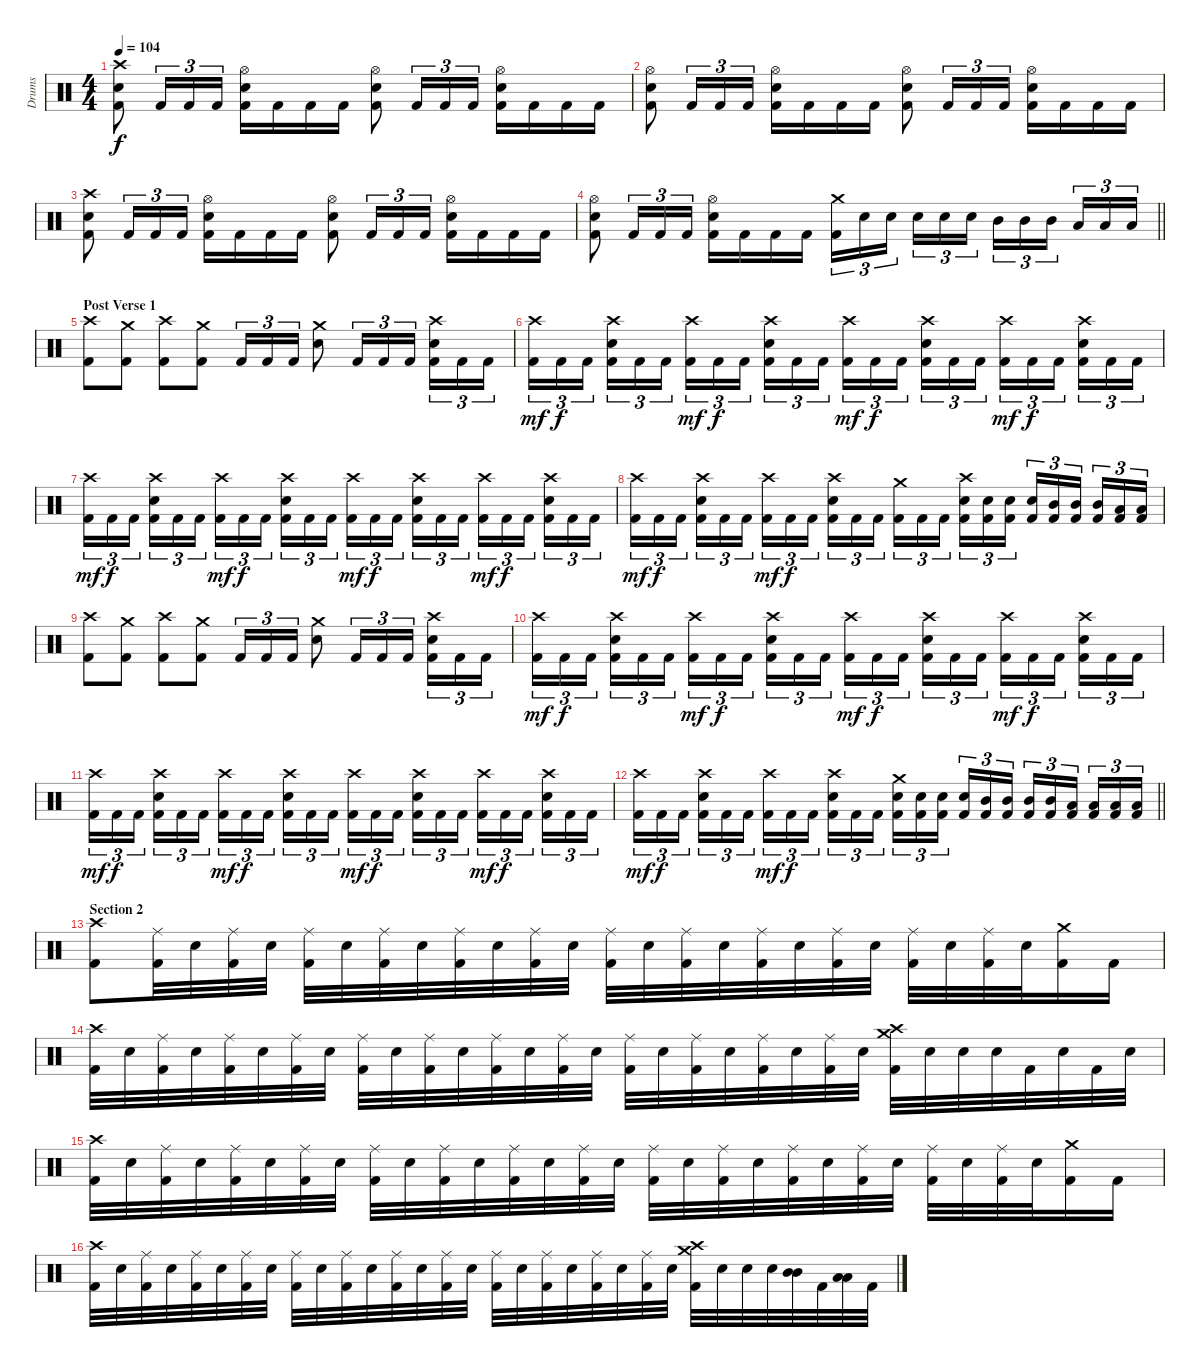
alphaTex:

\track ("Drums" "Drums") {instrument percussion}
\staff {score}
\articulation defaults
\ts (4 4)
\tempo 104
\clef neutral
\ks c
("Crash high (hit)" "Electric Snare (hit)" "Kick (hit) 2").8{dy f} "Kick (hit) 2".16{tu (3 2)} "Kick (hit) 2".16{tu (3 2)} "Kick (hit) 2".16{tu (3 2)} ("Hi-Hat (open)" "Electric Snare (hit)" "Kick (hit) 2").16 "Kick (hit) 2".16 "Kick (hit) 2".16 "Kick (hit) 2".16 ("Hi-Hat (open)" "Electric Snare (hit)" "Kick (hit) 2").8 "Kick (hit) 2".16{tu (3 2)} "Kick (hit) 2".16{tu (3 2)} "Kick (hit) 2".16{tu (3 2)} ("Hi-Hat (open)" "Electric Snare (hit)" "Kick (hit) 2").16 "Kick (hit) 2".16 "Kick (hit) 2".16 "Kick (hit) 2".16 |
("Hi-Hat (open)" "Electric Snare (hit)" "Kick (hit) 2").8 "Kick (hit) 2".16{tu (3 2)} "Kick (hit) 2".16{tu (3 2)} "Kick (hit) 2".16{tu (3 2)} ("Hi-Hat (open)" "Electric Snare (hit)" "Kick (hit) 2").16 "Kick (hit) 2".16 "Kick (hit) 2".16 "Kick (hit) 2".16 ("Hi-Hat (open)" "Electric Snare (hit)" "Kick (hit) 2").8 "Kick (hit) 2".16{tu (3 2)} "Kick (hit) 2".16{tu (3 2)} "Kick (hit) 2".16{tu (3 2)} ("Hi-Hat (open)" "Electric Snare (hit)" "Kick (hit) 2").16 "Kick (hit) 2".16 "Kick (hit) 2".16 "Kick (hit) 2".16 |
("Crash high (hit)" "Electric Snare (hit)" "Kick (hit) 2").8 "Kick (hit) 2".16{tu (3 2)} "Kick (hit) 2".16{tu (3 2)} "Kick (hit) 2".16{tu (3 2)} ("Hi-Hat (open)" "Electric Snare (hit)" "Kick (hit) 2").16 "Kick (hit) 2".16 "Kick (hit) 2".16 "Kick (hit) 2".16 ("Hi-Hat (open)" "Electric Snare (hit)" "Kick (hit) 2").8 "Kick (hit) 2".16{tu (3 2)} "Kick (hit) 2".16{tu (3 2)} "Kick (hit) 2".16{tu (3 2)} ("Hi-Hat (open)" "Electric Snare (hit)" "Kick (hit) 2").16 "Kick (hit) 2".16 "Kick (hit) 2".16 "Kick (hit) 2".16 |
\barLineRight lightlight
("Hi-Hat (open)" "Electric Snare (hit)" "Kick (hit) 2").8 "Kick (hit) 2".16{tu (3 2)} "Kick (hit) 2".16{tu (3 2)} "Kick (hit) 2".16{tu (3 2)} ("Hi-Hat (open)" "Electric Snare (hit)" "Kick (hit) 2").16 "Kick (hit) 2".16 "Kick (hit) 2".16 "Kick (hit) 2".16 ("Crash medium (hit)" "Kick (hit) 2").16{tu (3 2)} "Electric Snare (hit)".16{tu (3 2)} "Electric Snare (hit)".16{tu (3 2) beam splitsecondary} "Electric Snare (hit)".16{tu (3 2)} "Electric Snare (hit)".16{tu (3 2)} "Electric Snare (hit)".16{tu (3 2)} "Mid Tom (hit)".16{tu (3 2)} "Mid Tom (hit)".16{tu (3 2)} "Mid Tom (hit)".16{tu (3 2) beam splitsecondary} "Low Tom (hit)".16{tu (3 2)} "Low Tom (hit)".16{tu (3 2)} "Low Tom (hit)".16{tu (3 2)} |
\section ("" "Post Verse 1")
("Crash high (hit)" "Kick (hit) 2").8 ("Crash medium (hit)" "Kick (hit) 2").8 ("Crash high (hit)" "Kick (hit) 2").8 ("Crash medium (hit)" "Kick (hit) 2").8 "Kick (hit) 2".16{tu (3 2)} "Kick (hit) 2".16{tu (3 2)} "Kick (hit) 2".16{tu (3 2)} ("Crash medium (hit)" "Electric Snare (hit)").8 "Kick (hit) 2".16{tu (3 2)} "Kick (hit) 2".16{tu (3 2)} "Kick (hit) 2".16{tu (3 2) beam splitsecondary} ("Crash high (hit)" "Electric Snare (hit)" "Kick (hit) 2").16{tu (3 2)} "Kick (hit) 2".16{tu (3 2)} "Kick (hit) 2".16{tu (3 2)} |
("Crash high (hit)" "Kick (hit) 2").16{tu (3 2) dy mf} "Kick (hit) 2".16{tu (3 2) dy f} "Kick (hit) 2".16{tu (3 2) beam splitsecondary} ("Crash high (hit)" "Electric Snare (hit)" "Kick (hit) 2").16{tu (3 2)} "Kick (hit) 2".16{tu (3 2)} "Kick (hit) 2".16{tu (3 2)} ("Crash high (hit)" "Kick (hit) 2").16{tu (3 2) dy mf} "Kick (hit) 2".16{tu (3 2) dy f} "Kick (hit) 2".16{tu (3 2) beam splitsecondary} ("Crash high (hit)" "Electric Snare (hit)" "Kick (hit) 2").16{tu (3 2)} "Kick (hit) 2".16{tu (3 2)} "Kick (hit) 2".16{tu (3 2)} ("Crash high (hit)" "Kick (hit) 2").16{tu (3 2) dy mf} "Kick (hit) 2".16{tu (3 2) dy f} "Kick (hit) 2".16{tu (3 2) beam splitsecondary} ("Crash high (hit)" "Electric Snare (hit)" "Kick (hit) 2").16{tu (3 2)} "Kick (hit) 2".16{tu (3 2)} "Kick (hit) 2".16{tu (3 2)} ("Crash high (hit)" "Kick (hit) 2").16{tu (3 2) dy mf} "Kick (hit) 2".16{tu (3 2) dy f} "Kick (hit) 2".16{tu (3 2) beam splitsecondary} ("Crash high (hit)" "Electric Snare (hit)" "Kick (hit) 2").16{tu (3 2)} "Kick (hit) 2".16{tu (3 2)} "Kick (hit) 2".16{tu (3 2)} |
("Crash high (hit)" "Kick (hit) 2").16{tu (3 2) dy mf} "Kick (hit) 2".16{tu (3 2) dy f} "Kick (hit) 2".16{tu (3 2) beam splitsecondary} ("Crash high (hit)" "Electric Snare (hit)" "Kick (hit) 2").16{tu (3 2)} "Kick (hit) 2".16{tu (3 2)} "Kick (hit) 2".16{tu (3 2)} ("Crash high (hit)" "Kick (hit) 2").16{tu (3 2) dy mf} "Kick (hit) 2".16{tu (3 2) dy f} "Kick (hit) 2".16{tu (3 2) beam splitsecondary} ("Crash high (hit)" "Electric Snare (hit)" "Kick (hit) 2").16{tu (3 2)} "Kick (hit) 2".16{tu (3 2)} "Kick (hit) 2".16{tu (3 2)} ("Crash high (hit)" "Kick (hit) 2").16{tu (3 2) dy mf} "Kick (hit) 2".16{tu (3 2) dy f} "Kick (hit) 2".16{tu (3 2) beam splitsecondary} ("Crash high (hit)" "Electric Snare (hit)" "Kick (hit) 2").16{tu (3 2)} "Kick (hit) 2".16{tu (3 2)} "Kick (hit) 2".16{tu (3 2)} ("Crash high (hit)" "Kick (hit) 2").16{tu (3 2) dy mf} "Kick (hit) 2".16{tu (3 2) dy f} "Kick (hit) 2".16{tu (3 2) beam splitsecondary} ("Crash high (hit)" "Electric Snare (hit)" "Kick (hit) 2").16{tu (3 2)} "Kick (hit) 2".16{tu (3 2)} "Kick (hit) 2".16{tu (3 2)} |
("Crash high (hit)" "Kick (hit) 2").16{tu (3 2) dy mf} "Kick (hit) 2".16{tu (3 2) dy f} "Kick (hit) 2".16{tu (3 2) beam splitsecondary} ("Crash high (hit)" "Electric Snare (hit)" "Kick (hit) 2").16{tu (3 2)} "Kick (hit) 2".16{tu (3 2)} "Kick (hit) 2".16{tu (3 2)} ("Crash high (hit)" "Kick (hit) 2").16{tu (3 2) dy mf} "Kick (hit) 2".16{tu (3 2) dy f} "Kick (hit) 2".16{tu (3 2) beam splitsecondary} ("Crash high (hit)" "Electric Snare (hit)" "Kick (hit) 2").16{tu (3 2)} "Kick (hit) 2".16{tu (3 2)} "Kick (hit) 2".16{tu (3 2)} ("Crash medium (hit)" "Kick (hit) 2").16{tu (3 2)} "Kick (hit) 2".16{tu (3 2)} "Kick (hit) 2".16{tu (3 2) beam splitsecondary} ("Crash high (hit)" "Electric Snare (hit)" "Kick (hit) 2").16{tu (3 2)} ("Electric Snare (hit)" "Kick (hit) 2").16{tu (3 2)} ("Electric Snare (hit)" "Kick (hit) 2").16{tu (3 2)} ("Electric Snare (hit)" "Kick (hit) 2").16{tu (3 2)} ("Mid Tom (hit)" "Kick (hit) 2").16{tu (3 2)} ("Mid Tom (hit)" "Kick (hit) 2").16{tu (3 2) beam splitsecondary} ("Mid Tom (hit)" "Kick (hit) 2").16{tu (3 2)} ("Low Tom (hit)" "Kick (hit) 2").16{tu (3 2)} ("Low Tom (hit)" "Kick (hit) 2").16{tu (3 2)} |
("Crash high (hit)" "Kick (hit) 2").8 ("Crash medium (hit)" "Kick (hit) 2").8 ("Crash high (hit)" "Kick (hit) 2").8 ("Crash medium (hit)" "Kick (hit) 2").8 "Kick (hit) 2".16{tu (3 2)} "Kick (hit) 2".16{tu (3 2)} "Kick (hit) 2".16{tu (3 2)} ("Crash medium (hit)" "Electric Snare (hit)").8 "Kick (hit) 2".16{tu (3 2)} "Kick (hit) 2".16{tu (3 2)} "Kick (hit) 2".16{tu (3 2) beam splitsecondary} ("Crash high (hit)" "Electric Snare (hit)" "Kick (hit) 2").16{tu (3 2)} "Kick (hit) 2".16{tu (3 2)} "Kick (hit) 2".16{tu (3 2)} |
("Crash high (hit)" "Kick (hit) 2").16{tu (3 2) dy mf} "Kick (hit) 2".16{tu (3 2) dy f} "Kick (hit) 2".16{tu (3 2) beam splitsecondary} ("Crash high (hit)" "Electric Snare (hit)" "Kick (hit) 2").16{tu (3 2)} "Kick (hit) 2".16{tu (3 2)} "Kick (hit) 2".16{tu (3 2)} ("Crash high (hit)" "Kick (hit) 2").16{tu (3 2) dy mf} "Kick (hit) 2".16{tu (3 2) dy f} "Kick (hit) 2".16{tu (3 2) beam splitsecondary} ("Crash high (hit)" "Electric Snare (hit)" "Kick (hit) 2").16{tu (3 2)} "Kick (hit) 2".16{tu (3 2)} "Kick (hit) 2".16{tu (3 2)} ("Crash high (hit)" "Kick (hit) 2").16{tu (3 2) dy mf} "Kick (hit) 2".16{tu (3 2) dy f} "Kick (hit) 2".16{tu (3 2) beam splitsecondary} ("Crash high (hit)" "Electric Snare (hit)" "Kick (hit) 2").16{tu (3 2)} "Kick (hit) 2".16{tu (3 2)} "Kick (hit) 2".16{tu (3 2)} ("Crash high (hit)" "Kick (hit) 2").16{tu (3 2) dy mf} "Kick (hit) 2".16{tu (3 2) dy f} "Kick (hit) 2".16{tu (3 2) beam splitsecondary} ("Crash high (hit)" "Electric Snare (hit)" "Kick (hit) 2").16{tu (3 2)} "Kick (hit) 2".16{tu (3 2)} "Kick (hit) 2".16{tu (3 2)} |
("Crash high (hit)" "Kick (hit) 2").16{tu (3 2) dy mf} "Kick (hit) 2".16{tu (3 2) dy f} "Kick (hit) 2".16{tu (3 2) beam splitsecondary} ("Crash high (hit)" "Electric Snare (hit)" "Kick (hit) 2").16{tu (3 2)} "Kick (hit) 2".16{tu (3 2)} "Kick (hit) 2".16{tu (3 2)} ("Crash high (hit)" "Kick (hit) 2").16{tu (3 2) dy mf} "Kick (hit) 2".16{tu (3 2) dy f} "Kick (hit) 2".16{tu (3 2) beam splitsecondary} ("Crash high (hit)" "Electric Snare (hit)" "Kick (hit) 2").16{tu (3 2)} "Kick (hit) 2".16{tu (3 2)} "Kick (hit) 2".16{tu (3 2)} ("Crash high (hit)" "Kick (hit) 2").16{tu (3 2) dy mf} "Kick (hit) 2".16{tu (3 2) dy f} "Kick (hit) 2".16{tu (3 2) beam splitsecondary} ("Crash high (hit)" "Electric Snare (hit)" "Kick (hit) 2").16{tu (3 2)} "Kick (hit) 2".16{tu (3 2)} "Kick (hit) 2".16{tu (3 2)} ("Crash high (hit)" "Kick (hit) 2").16{tu (3 2) dy mf} "Kick (hit) 2".16{tu (3 2) dy f} "Kick (hit) 2".16{tu (3 2) beam splitsecondary} ("Crash high (hit)" "Electric Snare (hit)" "Kick (hit) 2").16{tu (3 2)} "Kick (hit) 2".16{tu (3 2)} "Kick (hit) 2".16{tu (3 2)} |
\barLineRight lightlight
("Crash high (hit)" "Kick (hit) 2").16{tu (3 2) dy mf} "Kick (hit) 2".16{tu (3 2) dy f} "Kick (hit) 2".16{tu (3 2) beam splitsecondary} ("Crash high (hit)" "Electric Snare (hit)" "Kick (hit) 2").16{tu (3 2)} "Kick (hit) 2".16{tu (3 2)} "Kick (hit) 2".16{tu (3 2)} ("Crash high (hit)" "Kick (hit) 2").16{tu (3 2) dy mf} "Kick (hit) 2".16{tu (3 2) dy f} "Kick (hit) 2".16{tu (3 2) beam splitsecondary} ("Crash high (hit)" "Electric Snare (hit)" "Kick (hit) 2").16{tu (3 2)} "Kick (hit) 2".16{tu (3 2)} "Kick (hit) 2".16{tu (3 2)} ("Crash medium (hit)" "Electric Snare (hit)" "Kick (hit) 2").16{tu (3 2)} ("Electric Snare (hit)" "Kick (hit) 2").16{tu (3 2)} ("Electric Snare (hit)" "Kick (hit) 2").16{tu (3 2) beam splitsecondary} ("Electric Snare (hit)" "Kick (hit) 2").16{tu (3 2)} ("Mid Tom (hit)" "Kick (hit) 2").16{tu (3 2)} ("Mid Tom (hit)" "Kick (hit) 2").16{tu (3 2)} ("Mid Tom (hit)" "Kick (hit) 2").16{tu (3 2)} ("Mid Tom (hit)" "Kick (hit) 2").16{tu (3 2)} ("Low Tom (hit)" "Kick (hit) 2").16{tu (3 2) beam splitsecondary} ("Low Tom (hit)" "Kick (hit) 2").16{tu (3 2)} ("Low Tom (hit)" "Kick (hit) 2").16{tu (3 2)} ("Low Tom (hit)" "Kick (hit) 2").16{tu (3 2)} |
\section ("" "Section 2")
("Crash high (hit)" "Kick (hit) 2").8 ("Ride (middle)" "Kick (hit) 2").32 "Electric Snare (hit)".32 ("Ride (middle)" "Kick (hit) 2").32 "Electric Snare (hit)".32 ("Ride (middle)" "Kick (hit) 2").32 "Electric Snare (hit)".32 ("Ride (middle)" "Kick (hit) 2").32 "Electric Snare (hit)".32 ("Ride (middle)" "Kick (hit) 2").32 "Electric Snare (hit)".32 ("Ride (middle)" "Kick (hit) 2").32 "Electric Snare (hit)".32 ("Ride (middle)" "Kick (hit) 2").32 "Electric Snare (hit)".32 ("Ride (middle)" "Kick (hit) 2").32 "Electric Snare (hit)".32 ("Ride (middle)" "Kick (hit) 2").32 "Electric Snare (hit)".32 ("Ride (middle)" "Kick (hit) 2").32 "Electric Snare (hit)".32 ("Ride (middle)" "Kick (hit) 2").32 "Electric Snare (hit)".32 ("Ride (middle)" "Kick (hit) 2").32 "Electric Snare (hit)".32 ("Crash medium (hit)" "Kick (hit) 2").16 "Kick (hit) 2".16 |
("Crash high (hit)" "Kick (hit) 2").32 "Electric Snare (hit)".32 ("Ride (middle)" "Kick (hit) 2").32 "Electric Snare (hit)".32 ("Ride (middle)" "Kick (hit) 2").32 "Electric Snare (hit)".32 ("Ride (middle)" "Kick (hit) 2").32 "Electric Snare (hit)".32 ("Ride (middle)" "Kick (hit) 2").32 "Electric Snare (hit)".32 ("Ride (middle)" "Kick (hit) 2").32 "Electric Snare (hit)".32 ("Ride (middle)" "Kick (hit) 2").32 "Electric Snare (hit)".32 ("Ride (middle)" "Kick (hit) 2").32 "Electric Snare (hit)".32 ("Ride (middle)" "Kick (hit) 2").32 "Electric Snare (hit)".32 ("Ride (middle)" "Kick (hit) 2").32 "Electric Snare (hit)".32 ("Ride (middle)" "Kick (hit) 2").32 "Electric Snare (hit)".32 ("Ride (middle)" "Kick (hit) 2").32 "Electric Snare (hit)".32 ("Crash medium (hit)" "Crash high (hit)" "Kick (hit) 2").32 "Electric Snare (hit)".32 "Electric Snare (hit)".32 "Electric Snare (hit)".32 "Kick (hit) 2".32 "Electric Snare (hit)".32 "Kick (hit) 2".32 "Electric Snare (hit)".32 |
("Crash high (hit)" "Kick (hit) 2").32 "Electric Snare (hit)".32 ("Ride (middle)" "Kick (hit) 2").32 "Electric Snare (hit)".32 ("Ride (middle)" "Kick (hit) 2").32 "Electric Snare (hit)".32 ("Ride (middle)" "Kick (hit) 2").32 "Electric Snare (hit)".32 ("Ride (middle)" "Kick (hit) 2").32 "Electric Snare (hit)".32 ("Ride (middle)" "Kick (hit) 2").32 "Electric Snare (hit)".32 ("Ride (middle)" "Kick (hit) 2").32 "Electric Snare (hit)".32 ("Ride (middle)" "Kick (hit) 2").32 "Electric Snare (hit)".32 ("Ride (middle)" "Kick (hit) 2").32 "Electric Snare (hit)".32 ("Ride (middle)" "Kick (hit) 2").32 "Electric Snare (hit)".32 ("Ride (middle)" "Kick (hit) 2").32 "Electric Snare (hit)".32 ("Ride (middle)" "Kick (hit) 2").32 "Electric Snare (hit)".32 ("Ride (middle)" "Kick (hit) 2").32 "Electric Snare (hit)".32 ("Ride (middle)" "Kick (hit) 2").32 "Electric Snare (hit)".32 ("Crash medium (hit)" "Kick (hit) 2").16 "Kick (hit) 2".16 |
("Crash high (hit)" "Kick (hit) 2").32 "Electric Snare (hit)".32 ("Ride (middle)" "Kick (hit) 2").32 "Electric Snare (hit)".32 ("Ride (middle)" "Kick (hit) 2").32 "Electric Snare (hit)".32 ("Ride (middle)" "Kick (hit) 2").32 "Electric Snare (hit)".32 ("Ride (middle)" "Kick (hit) 2").32 "Electric Snare (hit)".32 ("Ride (middle)" "Kick (hit) 2").32 "Electric Snare (hit)".32 ("Ride (middle)" "Kick (hit) 2").32 "Electric Snare (hit)".32 ("Ride (middle)" "Kick (hit) 2").32 "Electric Snare (hit)".32 ("Ride (middle)" "Kick (hit) 2").32 "Electric Snare (hit)".32 ("Ride (middle)" "Kick (hit) 2").32 "Electric Snare (hit)".32 ("Ride (middle)" "Kick (hit) 2").32 "Electric Snare (hit)".32 ("Ride (middle)" "Kick (hit) 2").32 "Electric Snare (hit)".32 ("Crash medium (hit)" "Crash high (hit)" "Kick (hit) 2").32 "Electric Snare (hit)".32 "Electric Snare (hit)".32 "Electric Snare (hit)".32 ("Mid Tom (hit)" "Mid Tom (hit)").32{bu 60} "Kick (hit) 2".32 ("Low Tom (hit)" "Low Tom (hit)").32{bu 60} "Kick (hit) 2".32
